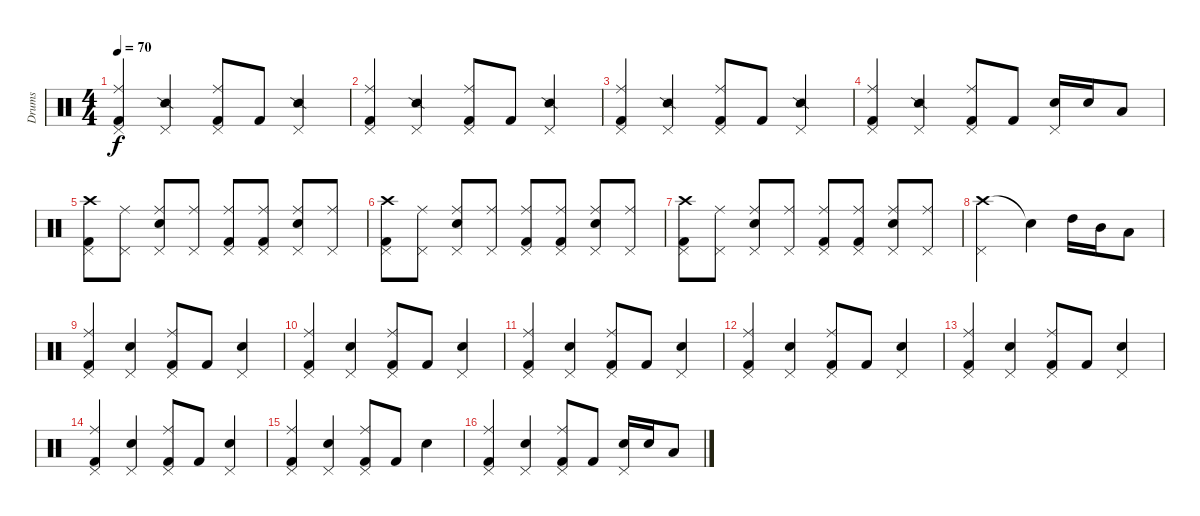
\track ("Drums" "Drums") {instrument percussion}
\staff {score}
\articulation defaults
\ts (4 4)
\tempo 70
\clef neutral
\ks c
("Ride (middle)" "Kick (hit) 2" "Pedal Hi-Hat (hit)").4{dy f} ("Snare (side stick) 2" "Pedal Hi-Hat (hit)").4 ("Ride (middle)" "Kick (hit) 2" "Pedal Hi-Hat (hit)").8 "Kick (hit) 2".8 ("Snare (side stick) 2" "Pedal Hi-Hat (hit)").4 |
("Ride (middle)" "Kick (hit) 2" "Pedal Hi-Hat (hit)").4 ("Snare (side stick) 2" "Pedal Hi-Hat (hit)").4 ("Ride (middle)" "Kick (hit) 2" "Pedal Hi-Hat (hit)").8 "Kick (hit) 2".8 ("Snare (side stick) 2" "Pedal Hi-Hat (hit)").4 |
("Ride (middle)" "Kick (hit) 2" "Pedal Hi-Hat (hit)").4 ("Snare (side stick) 2" "Pedal Hi-Hat (hit)").4 ("Ride (middle)" "Kick (hit) 2" "Pedal Hi-Hat (hit)").8 "Kick (hit) 2".8 ("Snare (side stick) 2" "Pedal Hi-Hat (hit)").4 |
("Ride (middle)" "Kick (hit) 2" "Pedal Hi-Hat (hit)").4 ("Snare (side stick) 2" "Pedal Hi-Hat (hit)").4 ("Ride (middle)" "Kick (hit) 2" "Pedal Hi-Hat (hit)").8 "Kick (hit) 2".8 ("Electric Snare (hit)" "Pedal Hi-Hat (hit)").16 "Electric Snare (hit)".16 "Low Tom (hit)".8 |
("Crash high (hit)" "Kick (hit) 2" "Pedal Hi-Hat (hit)").8 ("Ride (middle)" "Pedal Hi-Hat (hit)").8 ("Ride (middle)" "Electric Snare (hit)" "Pedal Hi-Hat (hit)").8 ("Ride (middle)" "Pedal Hi-Hat (hit)").8 ("Ride (middle)" "Kick (hit) 2" "Pedal Hi-Hat (hit)").8 ("Ride (middle)" "Kick (hit) 2" "Pedal Hi-Hat (hit)").8 ("Ride (middle)" "Electric Snare (hit)" "Pedal Hi-Hat (hit)").8 ("Ride (middle)" "Pedal Hi-Hat (hit)").8 |
("Crash high (hit)" "Kick (hit) 2" "Pedal Hi-Hat (hit)").8 ("Ride (middle)" "Pedal Hi-Hat (hit)").8 ("Ride (middle)" "Electric Snare (hit)" "Pedal Hi-Hat (hit)").8 ("Ride (middle)" "Pedal Hi-Hat (hit)").8 ("Ride (middle)" "Kick (hit) 2" "Pedal Hi-Hat (hit)").8 ("Ride (middle)" "Kick (hit) 2" "Pedal Hi-Hat (hit)").8 ("Ride (middle)" "Electric Snare (hit)" "Pedal Hi-Hat (hit)").8 ("Ride (middle)" "Pedal Hi-Hat (hit)").8 |
("Crash high (hit)" "Kick (hit) 2" "Pedal Hi-Hat (hit)").8 ("Ride (middle)" "Pedal Hi-Hat (hit)").8 ("Ride (middle)" "Electric Snare (hit)" "Pedal Hi-Hat (hit)").8 ("Ride (middle)" "Pedal Hi-Hat (hit)").8 ("Ride (middle)" "Kick (hit) 2" "Pedal Hi-Hat (hit)").8 ("Ride (middle)" "Kick (hit) 2" "Pedal Hi-Hat (hit)").8 ("Ride (middle)" "Electric Snare (hit)" "Pedal Hi-Hat (hit)").8 ("Ride (middle)" "Pedal Hi-Hat (hit)").8 |
("Crash high (hit)" "Pedal Hi-Hat (hit)").2 "Snare (hit)"{t}.4 "High Tom (hit)".16 "Mid Tom (hit)".16 "Low Tom (hit)".8 |
("Ride (middle)" "Kick (hit) 2" "Pedal Hi-Hat (hit)").4 ("Electric Snare (hit)" "Pedal Hi-Hat (hit)").4 ("Ride (middle)" "Kick (hit) 2" "Pedal Hi-Hat (hit)").8 "Kick (hit) 2".8 ("Electric Snare (hit)" "Pedal Hi-Hat (hit)").4 |
("Ride (middle)" "Kick (hit) 2" "Pedal Hi-Hat (hit)").4 ("Electric Snare (hit)" "Pedal Hi-Hat (hit)").4 ("Ride (middle)" "Kick (hit) 2" "Pedal Hi-Hat (hit)").8 "Kick (hit) 2".8 ("Electric Snare (hit)" "Pedal Hi-Hat (hit)").4 |
("Ride (middle)" "Kick (hit) 2" "Pedal Hi-Hat (hit)").4 ("Electric Snare (hit)" "Pedal Hi-Hat (hit)").4 ("Ride (middle)" "Kick (hit) 2" "Pedal Hi-Hat (hit)").8 "Kick (hit) 2".8 ("Electric Snare (hit)" "Pedal Hi-Hat (hit)").4 |
("Ride (middle)" "Kick (hit) 2" "Pedal Hi-Hat (hit)").4 ("Electric Snare (hit)" "Pedal Hi-Hat (hit)").4 ("Ride (middle)" "Kick (hit) 2" "Pedal Hi-Hat (hit)").8 "Kick (hit) 2".8 ("Electric Snare (hit)" "Pedal Hi-Hat (hit)").4 |
("Ride (middle)" "Kick (hit) 2" "Pedal Hi-Hat (hit)").4 ("Electric Snare (hit)" "Pedal Hi-Hat (hit)").4 ("Ride (middle)" "Kick (hit) 2" "Pedal Hi-Hat (hit)").8 "Kick (hit) 2".8 ("Electric Snare (hit)" "Pedal Hi-Hat (hit)").4 |
("Ride (middle)" "Kick (hit) 2" "Pedal Hi-Hat (hit)").4 ("Electric Snare (hit)" "Pedal Hi-Hat (hit)").4 ("Ride (middle)" "Kick (hit) 2" "Pedal Hi-Hat (hit)").8 "Kick (hit) 2".8 ("Electric Snare (hit)" "Pedal Hi-Hat (hit)").4 |
("Ride (middle)" "Kick (hit) 2" "Pedal Hi-Hat (hit)").4 ("Electric Snare (hit)" "Pedal Hi-Hat (hit)").4 ("Ride (middle)" "Kick (hit) 2" "Pedal Hi-Hat (hit)").8 "Kick (hit) 2".8 "Electric Snare (hit)".4 |
("Ride (middle)" "Kick (hit) 2" "Pedal Hi-Hat (hit)").4 ("Electric Snare (hit)" "Pedal Hi-Hat (hit)").4 ("Ride (middle)" "Kick (hit) 2" "Pedal Hi-Hat (hit)").8 "Kick (hit) 2".8 ("Electric Snare (hit)" "Pedal Hi-Hat (hit)").16 "Electric Snare (hit)".16 "Low Tom (hit)".8
